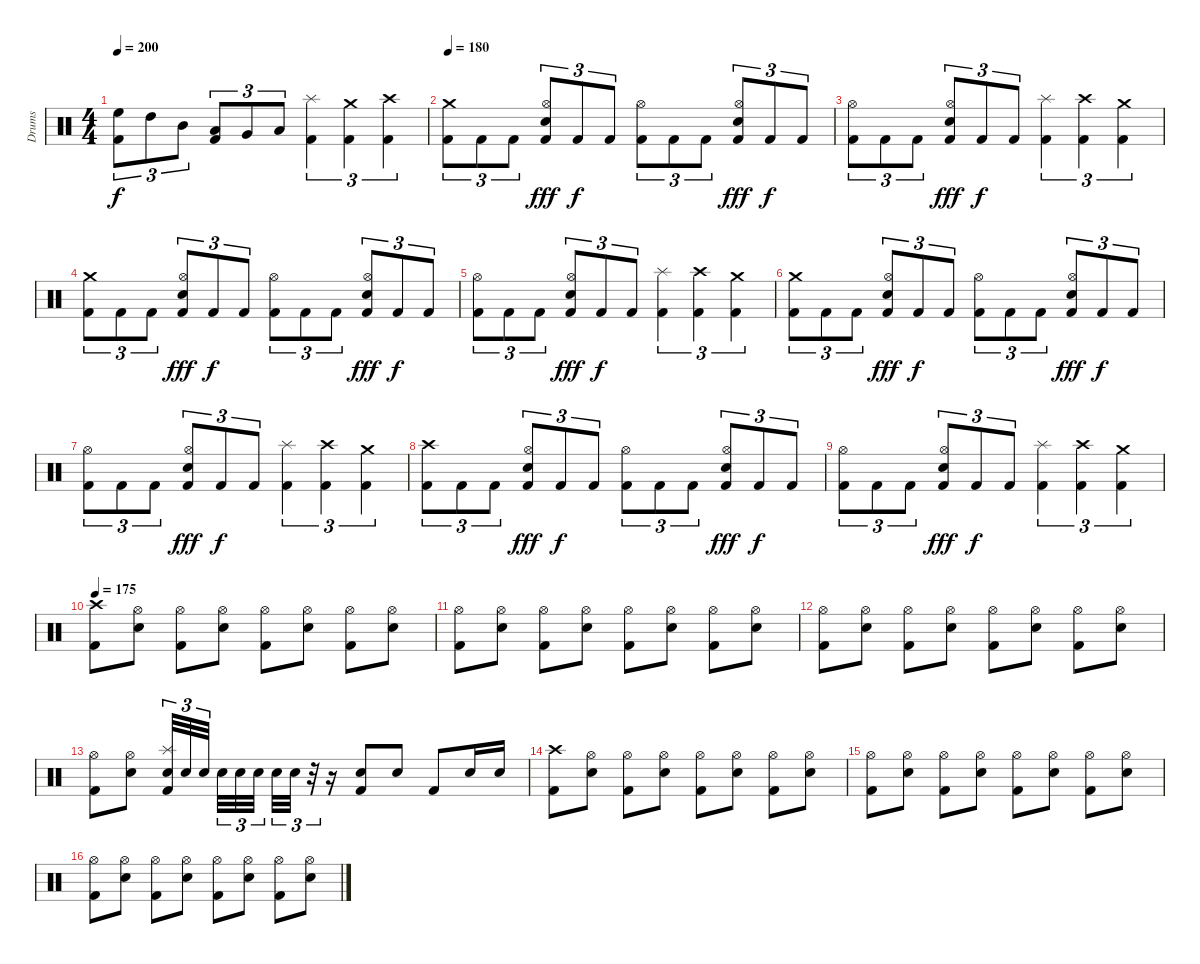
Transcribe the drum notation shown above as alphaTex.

\track ("Drums" "Drums") {instrument percussion}
\staff {score}
\articulation defaults
\ts (4 4)
\tempo 200
\clef neutral
\ks c
("High Floor Tom (hit)" "Kick (hit) 2").8{tu (3 2) dy f} "High Tom (hit)".8{tu (3 2)} "Mid Tom (hit)".8{tu (3 2)} ("Low Tom (hit)" "Kick (hit) 2").8{tu (3 2)} "Very Low Tom (hit)".8{tu (3 2)} "Low Floor Tom (hit)".8{tu (3 2)} ("Splash (hit)" "Kick (hit) 2").4{tu (3 2)} ("Crash medium (hit)" "Kick (hit) 2").4{tu (3 2)} ("Crash high (hit)" "Kick (hit) 2").4{tu (3 2)} |
\tempo 180
("Crash medium (hit)" "Kick (hit) 2").8{tu (3 2)} "Kick (hit) 2".8{tu (3 2)} "Kick (hit) 2".8{tu (3 2)} ("Hi-Hat (open)" "Snare (hit) 2" "Kick (hit) 2").8{tu (3 2) dy fff} "Kick (hit) 2".8{tu (3 2) dy f} "Kick (hit) 2".8{tu (3 2)} ("Hi-Hat (open)" "Kick (hit) 2").8{tu (3 2)} "Kick (hit) 2".8{tu (3 2)} "Kick (hit) 2".8{tu (3 2)} ("Hi-Hat (open)" "Snare (hit) 2" "Kick (hit) 2").8{tu (3 2) dy fff} "Kick (hit) 2".8{tu (3 2) dy f} "Kick (hit) 2".8{tu (3 2)} |
("Hi-Hat (open)" "Kick (hit) 2").8{tu (3 2)} "Kick (hit) 2".8{tu (3 2)} "Kick (hit) 2".8{tu (3 2)} ("Hi-Hat (open)" "Snare (hit) 2" "Kick (hit) 2").8{tu (3 2) dy fff} "Kick (hit) 2".8{tu (3 2) dy f} "Kick (hit) 2".8{tu (3 2)} ("Splash (hit)" "Kick (hit) 2").4{tu (3 2)} ("Crash high (hit)" "Kick (hit) 2").4{tu (3 2)} ("Crash medium (hit)" "Kick (hit) 2").4{tu (3 2)} |
("Crash medium (hit)" "Kick (hit) 2").8{tu (3 2)} "Kick (hit) 2".8{tu (3 2)} "Kick (hit) 2".8{tu (3 2)} ("Hi-Hat (open)" "Snare (hit) 2" "Kick (hit) 2").8{tu (3 2) dy fff} "Kick (hit) 2".8{tu (3 2) dy f} "Kick (hit) 2".8{tu (3 2)} ("Hi-Hat (open)" "Kick (hit) 2").8{tu (3 2)} "Kick (hit) 2".8{tu (3 2)} "Kick (hit) 2".8{tu (3 2)} ("Hi-Hat (open)" "Snare (hit) 2" "Kick (hit) 2").8{tu (3 2) dy fff} "Kick (hit) 2".8{tu (3 2) dy f} "Kick (hit) 2".8{tu (3 2)} |
("Hi-Hat (open)" "Kick (hit) 2").8{tu (3 2)} "Kick (hit) 2".8{tu (3 2)} "Kick (hit) 2".8{tu (3 2)} ("Hi-Hat (open)" "Snare (hit) 2" "Kick (hit) 2").8{tu (3 2) dy fff} "Kick (hit) 2".8{tu (3 2) dy f} "Kick (hit) 2".8{tu (3 2)} ("Splash (hit)" "Kick (hit) 2").4{tu (3 2)} ("Crash high (hit)" "Kick (hit) 2").4{tu (3 2)} ("Crash medium (hit)" "Kick (hit) 2").4{tu (3 2)} |
("Crash medium (hit)" "Kick (hit) 2").8{tu (3 2)} "Kick (hit) 2".8{tu (3 2)} "Kick (hit) 2".8{tu (3 2)} ("Hi-Hat (open)" "Snare (hit) 2" "Kick (hit) 2").8{tu (3 2) dy fff} "Kick (hit) 2".8{tu (3 2) dy f} "Kick (hit) 2".8{tu (3 2)} ("Hi-Hat (open)" "Kick (hit) 2").8{tu (3 2)} "Kick (hit) 2".8{tu (3 2)} "Kick (hit) 2".8{tu (3 2)} ("Hi-Hat (open)" "Snare (hit) 2" "Kick (hit) 2").8{tu (3 2) dy fff} "Kick (hit) 2".8{tu (3 2) dy f} "Kick (hit) 2".8{tu (3 2)} |
("Hi-Hat (open)" "Kick (hit) 2").8{tu (3 2)} "Kick (hit) 2".8{tu (3 2)} "Kick (hit) 2".8{tu (3 2)} ("Hi-Hat (open)" "Snare (hit) 2" "Kick (hit) 2").8{tu (3 2) dy fff} "Kick (hit) 2".8{tu (3 2) dy f} "Kick (hit) 2".8{tu (3 2)} ("Splash (hit)" "Kick (hit) 2").4{tu (3 2)} ("Crash high (hit)" "Kick (hit) 2").4{tu (3 2)} ("Crash medium (hit)" "Kick (hit) 2").4{tu (3 2)} |
("Crash high (hit)" "Kick (hit) 2").8{tu (3 2)} "Kick (hit) 2".8{tu (3 2)} "Kick (hit) 2".8{tu (3 2)} ("Hi-Hat (open)" "Snare (hit) 2" "Kick (hit) 2").8{tu (3 2) dy fff} "Kick (hit) 2".8{tu (3 2) dy f} "Kick (hit) 2".8{tu (3 2)} ("Hi-Hat (open)" "Kick (hit) 2").8{tu (3 2)} "Kick (hit) 2".8{tu (3 2)} "Kick (hit) 2".8{tu (3 2)} ("Hi-Hat (open)" "Snare (hit) 2" "Kick (hit) 2").8{tu (3 2) dy fff} "Kick (hit) 2".8{tu (3 2) dy f} "Kick (hit) 2".8{tu (3 2)} |
("Hi-Hat (open)" "Kick (hit) 2").8{tu (3 2)} "Kick (hit) 2".8{tu (3 2)} "Kick (hit) 2".8{tu (3 2)} ("Hi-Hat (open)" "Snare (hit) 2" "Kick (hit) 2").8{tu (3 2) dy fff} "Kick (hit) 2".8{tu (3 2) dy f} "Kick (hit) 2".8{tu (3 2)} ("Splash (hit)" "Kick (hit) 2").4{tu (3 2)} ("Crash high (hit)" "Kick (hit) 2").4{tu (3 2)} ("Crash medium (hit)" "Kick (hit) 2").4{tu (3 2)} |
\tempo 175
("Crash high (hit)" "Kick (hit) 2").8 ("Hi-Hat (open)" "Snare (hit) 2").8 ("Hi-Hat (open)" "Kick (hit) 2").8 ("Hi-Hat (open)" "Snare (hit) 2").8 ("Hi-Hat (open)" "Kick (hit) 2").8 ("Hi-Hat (open)" "Snare (hit) 2").8 ("Hi-Hat (open)" "Kick (hit) 2").8 ("Hi-Hat (open)" "Snare (hit) 2").8 |
("Hi-Hat (open)" "Kick (hit) 2").8 ("Hi-Hat (open)" "Snare (hit) 2").8 ("Hi-Hat (open)" "Kick (hit) 2").8 ("Hi-Hat (open)" "Snare (hit) 2").8 ("Hi-Hat (open)" "Kick (hit) 2").8 ("Hi-Hat (open)" "Snare (hit) 2").8 ("Hi-Hat (open)" "Kick (hit) 2").8 ("Hi-Hat (open)" "Snare (hit) 2").8 |
("Hi-Hat (open)" "Kick (hit) 2").8 ("Hi-Hat (open)" "Snare (hit) 2").8 ("Hi-Hat (open)" "Kick (hit) 2").8 ("Hi-Hat (open)" "Snare (hit) 2").8 ("Hi-Hat (open)" "Kick (hit) 2").8 ("Hi-Hat (open)" "Snare (hit) 2").8 ("Hi-Hat (open)" "Kick (hit) 2").8 ("Hi-Hat (open)" "Snare (hit) 2").8 |
("Hi-Hat (open)" "Kick (hit) 2").8 ("Hi-Hat (open)" "Snare (hit) 2").8 ("Splash (hit)" "Snare (hit) 2" "Kick (hit) 2").32{tu (3 2)} "Snare (hit) 2".32{tu (3 2)} "Snare (hit) 2".32{tu (3 2)} "Snare (hit) 2".32{tu (3 2)} "Snare (hit) 2".32{tu (3 2)} "Snare (hit) 2".32{tu (3 2)} "Snare (hit) 2".32{tu (3 2)} "Snare (hit) 2".32{tu (3 2)} r.32{tu (3 2)} r.16 ("Snare (hit) 2" "Kick (hit) 2").8 "Snare (hit) 2".8 "Kick (hit) 2".8 "Snare (hit) 2".16 "Snare (hit) 2".16 |
("Crash high (hit)" "Kick (hit) 2").8 ("Hi-Hat (open)" "Snare (hit) 2").8 ("Hi-Hat (open)" "Kick (hit) 2").8 ("Hi-Hat (open)" "Snare (hit) 2").8 ("Hi-Hat (open)" "Kick (hit) 2").8 ("Hi-Hat (open)" "Snare (hit) 2").8 ("Hi-Hat (open)" "Kick (hit) 2").8 ("Hi-Hat (open)" "Snare (hit) 2").8 |
("Hi-Hat (open)" "Kick (hit) 2").8 ("Hi-Hat (open)" "Snare (hit) 2").8 ("Hi-Hat (open)" "Kick (hit) 2").8 ("Hi-Hat (open)" "Snare (hit) 2").8 ("Hi-Hat (open)" "Kick (hit) 2").8 ("Hi-Hat (open)" "Snare (hit) 2").8 ("Hi-Hat (open)" "Kick (hit) 2").8 ("Hi-Hat (open)" "Snare (hit) 2").8 |
("Hi-Hat (open)" "Kick (hit) 2").8 ("Hi-Hat (open)" "Snare (hit) 2").8 ("Hi-Hat (open)" "Kick (hit) 2").8 ("Hi-Hat (open)" "Snare (hit) 2").8 ("Hi-Hat (open)" "Kick (hit) 2").8 ("Hi-Hat (open)" "Snare (hit) 2").8 ("Hi-Hat (open)" "Kick (hit) 2").8 ("Hi-Hat (open)" "Snare (hit) 2").8
